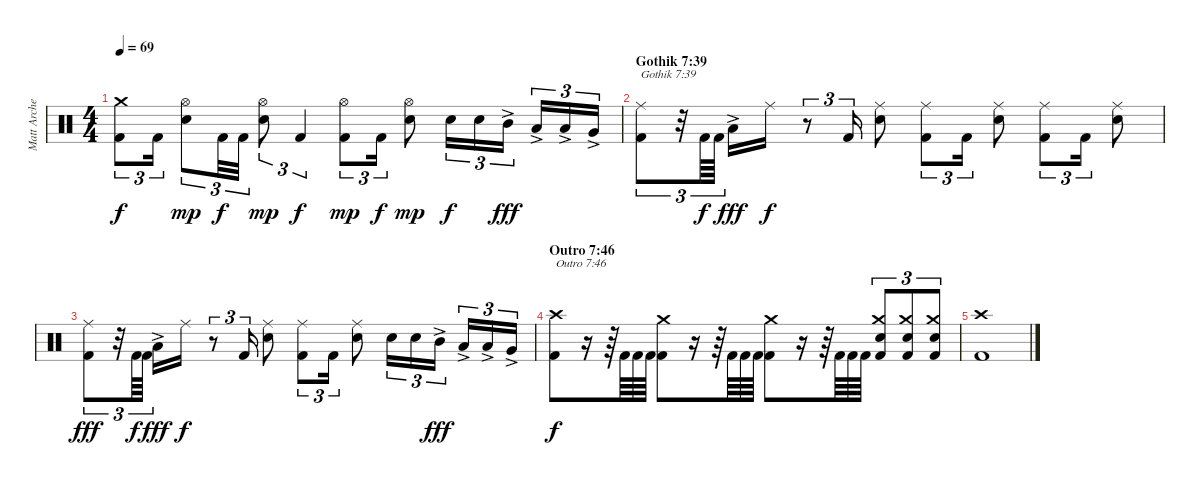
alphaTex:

\track ("Matt Archer" "Matt Arche") {instrument percussion}
\staff {score}
\articulation defaults
\ts (4 4)
\tempo 69
\clef neutral
\ks c
("Kick (hit) 2" "Crash medium (hit)").8{tu (3 2) dy f} "Kick (hit) 2".16{tu (3 2)} ("Electric Snare (hit)" "Hi-Hat (open)").8{tu (3 2) dy mp} "Kick (hit) 2".32{tu (3 2) dy f} "Kick (hit) 2".32{tu (3 2)} ("Electric Snare (hit)" "Hi-Hat (open)").8{tu (3 2) dy mp} "Kick (hit) 2".4{tu (3 2) dy f} ("Kick (hit) 2" "Hi-Hat (open)").8{tu (3 2) dy mp} "Kick (hit) 2".16{tu (3 2) dy f} ("Electric Snare (hit)" "Hi-Hat (open)").8{dy mp} "Electric Snare (hit)".16{tu (3 2) dy f} "Electric Snare (hit)".16{tu (3 2)} "Mid Tom (hit)"{ac}.16{tu (3 2) dy fff} "Low Tom (hit)"{ac}.16{tu (3 2)} "Low Tom (hit)"{ac}.16{tu (3 2)} "Very Low Tom (hit)"{ac}.16{tu (3 2)} |
\section ("" "Gothik 7:39")
("Kick (hit) 2" "Ride (middle)").8{tu (3 2) txt "Gothik 7:39"} r.32{tu (3 2)} "Kick (hit) 2".64{tu (3 2) dy f} "Kick (hit) 2".64{tu (3 2)} "Low Tom (hit)"{ac}.16{dy fff} "Ride (middle)".16{dy f} r.8{tu (3 2)} "Kick (hit) 2".16{tu (3 2)} ("Electric Snare (hit)" "Ride (middle)").8 ("Kick (hit) 2" "Ride (middle)").8{tu (3 2)} "Kick (hit) 2".16{tu (3 2)} ("Electric Snare (hit)" "Ride (middle)").8 ("Kick (hit) 2" "Ride (middle)").8{tu (3 2)} "Kick (hit) 2".16{tu (3 2)} ("Electric Snare (hit)" "Ride (middle)").8 |
("Kick (hit) 2" "Ride (middle)").8{tu (3 2) dy fff} r.32{tu (3 2)} "Kick (hit) 2".64{tu (3 2) dy f} "Kick (hit) 2".64{tu (3 2)} "Low Tom (hit)"{ac}.16{dy fff} "Ride (middle)".16{dy f} r.8{tu (3 2)} "Kick (hit) 2".16{tu (3 2)} ("Electric Snare (hit)" "Ride (middle)").8 ("Kick (hit) 2" "Ride (middle)").8{tu (3 2)} "Kick (hit) 2".16{tu (3 2)} ("Electric Snare (hit)" "Ride (middle)").8 "Electric Snare (hit)".16{tu (3 2)} "Electric Snare (hit)".16{tu (3 2)} "Mid Tom (hit)"{ac}.16{tu (3 2) dy fff} "Low Tom (hit)"{ac}.16{tu (3 2)} "Low Tom (hit)"{ac}.16{tu (3 2)} "Very Low Tom (hit)"{ac}.16{tu (3 2)} |
\section ("" "Outro 7:46")
("Kick (hit) 2" "Crash high (hit)").8{txt "Outro 7:46" dy f} r.16 r.64 "Kick (hit) 2".64 "Kick (hit) 2".64 "Kick (hit) 2".64 ("Kick (hit) 2" "Crash medium (hit)").8 r.16 r.64 "Kick (hit) 2".64 "Kick (hit) 2".64 "Kick (hit) 2".64 ("Kick (hit) 2" "Crash medium (hit)").8 r.16 r.64 "Kick (hit) 2".64 "Kick (hit) 2".64 "Kick (hit) 2".64 ("Kick (hit) 2" "Electric Snare (hit)" "Crash medium (hit)").8{tu (3 2)} ("Kick (hit) 2" "Electric Snare (hit)" "Crash medium (hit)").8{tu (3 2)} ("Kick (hit) 2" "Electric Snare (hit)" "Crash medium (hit)").8{tu (3 2)} |
("Kick (hit) 2" "Crash high (hit)").1
